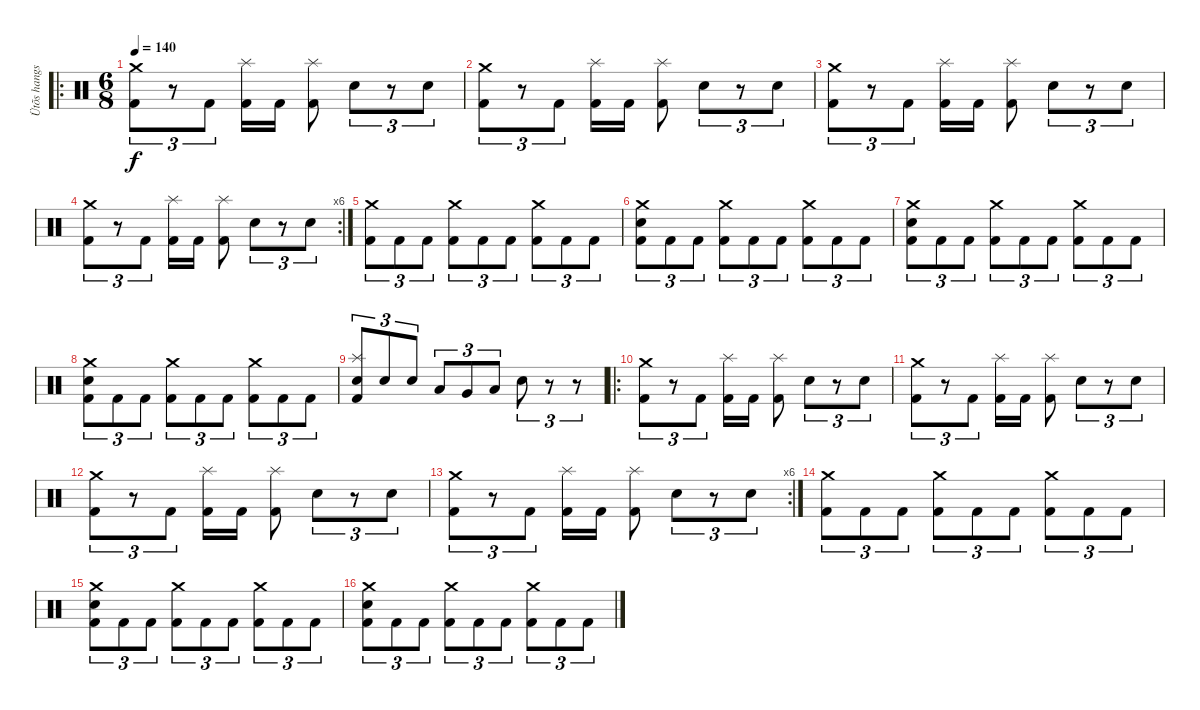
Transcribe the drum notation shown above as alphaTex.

\track ("Ütõs hangszer" "Ütõs hangs") {instrument percussion}
\staff {score}
\articulation defaults
\ro
\ts (6 8)
\tempo 140
\clef neutral
\ks c
("Crash medium (hit)" "Kick (hit) 2").8{tu (3 2) dy f} r.8{tu (3 2)} "Kick (hit) 2".8{tu (3 2)} ("Splash (hit)" "Kick (hit) 2").16 "Kick (hit) 2".16 ("Splash (hit)" "Kick (hit) 2").8 "Electric Snare (hit)".8{tu (3 2)} r.8{tu (3 2)} "Electric Snare (hit)".8{tu (3 2)} |
("Crash medium (hit)" "Kick (hit) 2").8{tu (3 2)} r.8{tu (3 2)} "Kick (hit) 2".8{tu (3 2)} ("Splash (hit)" "Kick (hit) 2").16 "Kick (hit) 2".16 ("Splash (hit)" "Kick (hit) 2").8 "Electric Snare (hit)".8{tu (3 2)} r.8{tu (3 2)} "Electric Snare (hit)".8{tu (3 2)} |
("Crash medium (hit)" "Kick (hit) 2").8{tu (3 2)} r.8{tu (3 2)} "Kick (hit) 2".8{tu (3 2)} ("Splash (hit)" "Kick (hit) 2").16 "Kick (hit) 2".16 ("Splash (hit)" "Kick (hit) 2").8 "Electric Snare (hit)".8{tu (3 2)} r.8{tu (3 2)} "Electric Snare (hit)".8{tu (3 2)} |
\rc 6
("Crash medium (hit)" "Kick (hit) 2").8{tu (3 2)} r.8{tu (3 2)} "Kick (hit) 2".8{tu (3 2)} ("Splash (hit)" "Kick (hit) 2").16 "Kick (hit) 2".16 ("Splash (hit)" "Kick (hit) 2").8 "Electric Snare (hit)".8{tu (3 2)} r.8{tu (3 2)} "Electric Snare (hit)".8{tu (3 2)} |
("Crash medium (hit)" "Kick (hit) 2").8{tu (3 2)} "Kick (hit) 2".8{tu (3 2)} "Kick (hit) 2".8{tu (3 2)} ("Crash medium (hit)" "Kick (hit) 2").8{tu (3 2)} "Kick (hit) 2".8{tu (3 2)} "Kick (hit) 2".8{tu (3 2)} ("Crash medium (hit)" "Kick (hit) 2").8{tu (3 2)} "Kick (hit) 2".8{tu (3 2)} "Kick (hit) 2".8{tu (3 2)} |
("Crash medium (hit)" "Electric Snare (hit)" "Kick (hit) 2").8{tu (3 2)} "Kick (hit) 2".8{tu (3 2)} "Kick (hit) 2".8{tu (3 2)} ("Crash medium (hit)" "Kick (hit) 2").8{tu (3 2)} "Kick (hit) 2".8{tu (3 2)} "Kick (hit) 2".8{tu (3 2)} ("Crash medium (hit)" "Kick (hit) 2").8{tu (3 2)} "Kick (hit) 2".8{tu (3 2)} "Kick (hit) 2".8{tu (3 2)} |
("Crash medium (hit)" "Electric Snare (hit)" "Kick (hit) 2").8{tu (3 2)} "Kick (hit) 2".8{tu (3 2)} "Kick (hit) 2".8{tu (3 2)} ("Crash medium (hit)" "Kick (hit) 2").8{tu (3 2)} "Kick (hit) 2".8{tu (3 2)} "Kick (hit) 2".8{tu (3 2)} ("Crash medium (hit)" "Kick (hit) 2").8{tu (3 2)} "Kick (hit) 2".8{tu (3 2)} "Kick (hit) 2".8{tu (3 2)} |
("Crash medium (hit)" "Electric Snare (hit)" "Kick (hit) 2").8{tu (3 2)} "Kick (hit) 2".8{tu (3 2)} "Kick (hit) 2".8{tu (3 2)} ("Crash medium (hit)" "Kick (hit) 2").8{tu (3 2)} "Kick (hit) 2".8{tu (3 2)} "Kick (hit) 2".8{tu (3 2)} ("Crash medium (hit)" "Kick (hit) 2").8{tu (3 2)} "Kick (hit) 2".8{tu (3 2)} "Kick (hit) 2".8{tu (3 2)} |
("Splash (hit)" "Electric Snare (hit)" "Kick (hit) 2").8{tu (3 2)} "Electric Snare (hit)".8{tu (3 2)} "Electric Snare (hit)".8{tu (3 2)} "Low Tom (hit)".8{tu (3 2)} "Very Low Tom (hit)".8{tu (3 2)} "Low Floor Tom (hit)".8{tu (3 2)} "Electric Snare (hit)".8{tu (3 2)} r.8{tu (3 2)} r.8{tu (3 2)} |
\ro
("Crash medium (hit)" "Kick (hit) 2").8{tu (3 2)} r.8{tu (3 2)} "Kick (hit) 2".8{tu (3 2)} ("Splash (hit)" "Kick (hit) 2").16 "Kick (hit) 2".16 ("Splash (hit)" "Kick (hit) 2").8 "Electric Snare (hit)".8{tu (3 2)} r.8{tu (3 2)} "Electric Snare (hit)".8{tu (3 2)} |
("Crash medium (hit)" "Kick (hit) 2").8{tu (3 2)} r.8{tu (3 2)} "Kick (hit) 2".8{tu (3 2)} ("Splash (hit)" "Kick (hit) 2").16 "Kick (hit) 2".16 ("Splash (hit)" "Kick (hit) 2").8 "Electric Snare (hit)".8{tu (3 2)} r.8{tu (3 2)} "Electric Snare (hit)".8{tu (3 2)} |
("Crash medium (hit)" "Kick (hit) 2").8{tu (3 2)} r.8{tu (3 2)} "Kick (hit) 2".8{tu (3 2)} ("Splash (hit)" "Kick (hit) 2").16 "Kick (hit) 2".16 ("Splash (hit)" "Kick (hit) 2").8 "Electric Snare (hit)".8{tu (3 2)} r.8{tu (3 2)} "Electric Snare (hit)".8{tu (3 2)} |
\rc 6
("Crash medium (hit)" "Kick (hit) 2").8{tu (3 2)} r.8{tu (3 2)} "Kick (hit) 2".8{tu (3 2)} ("Splash (hit)" "Kick (hit) 2").16 "Kick (hit) 2".16 ("Splash (hit)" "Kick (hit) 2").8 "Electric Snare (hit)".8{tu (3 2)} r.8{tu (3 2)} "Electric Snare (hit)".8{tu (3 2)} |
("Crash medium (hit)" "Kick (hit) 2").8{tu (3 2)} "Kick (hit) 2".8{tu (3 2)} "Kick (hit) 2".8{tu (3 2)} ("Crash medium (hit)" "Kick (hit) 2").8{tu (3 2)} "Kick (hit) 2".8{tu (3 2)} "Kick (hit) 2".8{tu (3 2)} ("Crash medium (hit)" "Kick (hit) 2").8{tu (3 2)} "Kick (hit) 2".8{tu (3 2)} "Kick (hit) 2".8{tu (3 2)} |
("Crash medium (hit)" "Electric Snare (hit)" "Kick (hit) 2").8{tu (3 2)} "Kick (hit) 2".8{tu (3 2)} "Kick (hit) 2".8{tu (3 2)} ("Crash medium (hit)" "Kick (hit) 2").8{tu (3 2)} "Kick (hit) 2".8{tu (3 2)} "Kick (hit) 2".8{tu (3 2)} ("Crash medium (hit)" "Kick (hit) 2").8{tu (3 2)} "Kick (hit) 2".8{tu (3 2)} "Kick (hit) 2".8{tu (3 2)} |
("Crash medium (hit)" "Electric Snare (hit)" "Kick (hit) 2").8{tu (3 2)} "Kick (hit) 2".8{tu (3 2)} "Kick (hit) 2".8{tu (3 2)} ("Crash medium (hit)" "Kick (hit) 2").8{tu (3 2)} "Kick (hit) 2".8{tu (3 2)} "Kick (hit) 2".8{tu (3 2)} ("Crash medium (hit)" "Kick (hit) 2").8{tu (3 2)} "Kick (hit) 2".8{tu (3 2)} "Kick (hit) 2".8{tu (3 2)}
